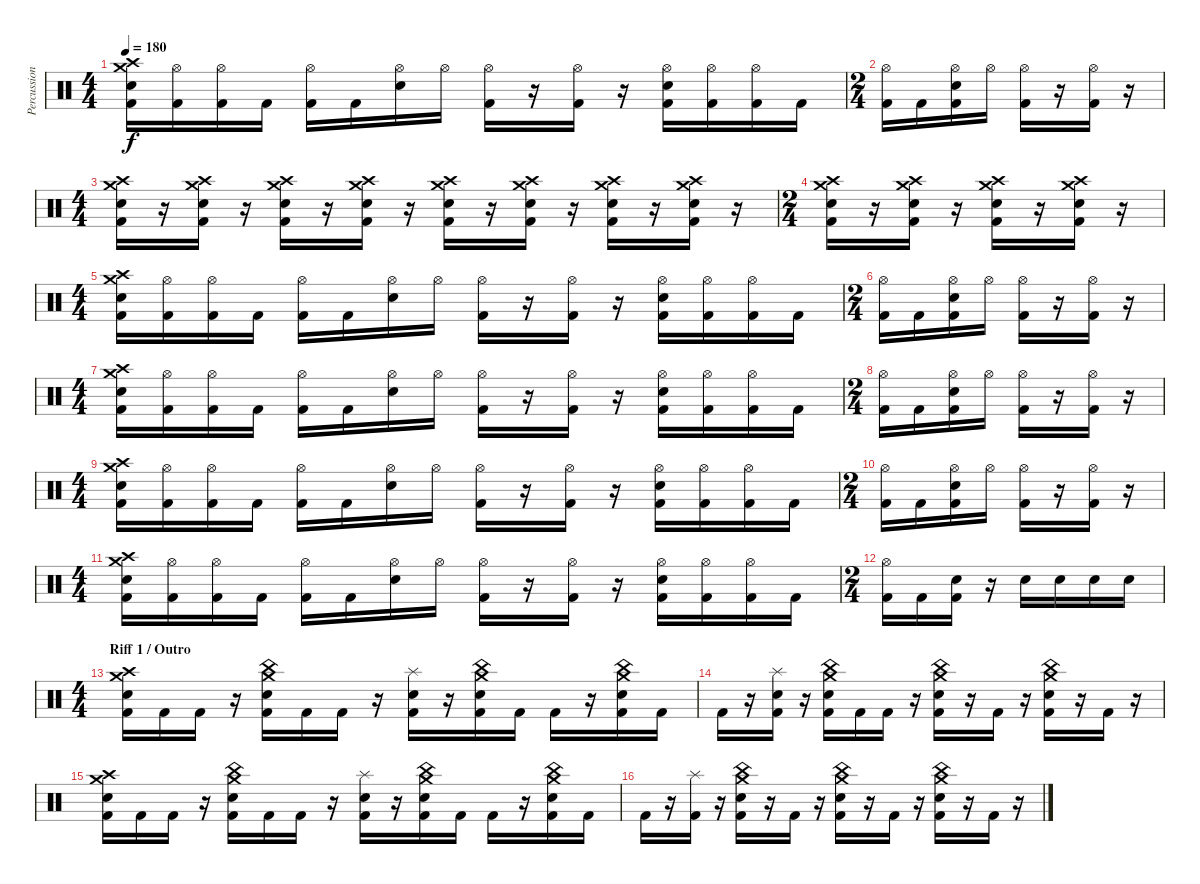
\track ("Percussion" "Percussion") {instrument percussion}
\staff {score}
\articulation defaults
\ts (4 4)
\tempo 180
\clef neutral
\ks c
("Crash medium (hit)" "Crash high (hit)" "Electric Snare (hit)" "Kick (hit) 2").16{dy f} ("Hi-Hat (open)" "Kick (hit) 2").16 ("Hi-Hat (open)" "Kick (hit) 2").16 "Kick (hit) 2".16 ("Hi-Hat (open)" "Kick (hit) 2").16 "Kick (hit) 2".16 ("Hi-Hat (open)" "Electric Snare (hit)").16 "Hi-Hat (open)".16 ("Hi-Hat (open)" "Kick (hit) 2").16 r.16 ("Hi-Hat (open)" "Kick (hit) 2").16 r.16 ("Hi-Hat (open)" "Electric Snare (hit)" "Kick (hit) 2").16 ("Hi-Hat (open)" "Kick (hit) 2").16 ("Hi-Hat (open)" "Kick (hit) 2").16 "Kick (hit) 2".16 |
\ts (2 4)
("Hi-Hat (open)" "Kick (hit) 2").16 "Kick (hit) 2".16 ("Hi-Hat (open)" "Electric Snare (hit)" "Kick (hit) 2").16 "Hi-Hat (open)".16 ("Hi-Hat (open)" "Kick (hit) 2").16 r.16 ("Hi-Hat (open)" "Kick (hit) 2").16 r.16 |
\ts (4 4)
("Crash medium (hit)" "Crash high (hit)" "Electric Snare (hit)" "Kick (hit) 2").16 r.16 ("Crash medium (hit)" "Crash high (hit)" "Electric Snare (hit)" "Kick (hit) 2").16 r.16 ("Crash medium (hit)" "Crash high (hit)" "Electric Snare (hit)" "Kick (hit) 2").16 r.16 ("Crash medium (hit)" "Crash high (hit)" "Electric Snare (hit)" "Kick (hit) 2").16 r.16 ("Crash medium (hit)" "Crash high (hit)" "Electric Snare (hit)" "Kick (hit) 2").16 r.16 ("Crash medium (hit)" "Crash high (hit)" "Electric Snare (hit)" "Kick (hit) 2").16 r.16 ("Crash medium (hit)" "Crash high (hit)" "Electric Snare (hit)" "Kick (hit) 2").16 r.16 ("Crash medium (hit)" "Crash high (hit)" "Electric Snare (hit)" "Kick (hit) 2").16 r.16 |
\ts (2 4)
("Crash medium (hit)" "Crash high (hit)" "Electric Snare (hit)" "Kick (hit) 2").16 r.16 ("Crash medium (hit)" "Crash high (hit)" "Electric Snare (hit)" "Kick (hit) 2").16 r.16 ("Crash medium (hit)" "Crash high (hit)" "Electric Snare (hit)" "Kick (hit) 2").16 r.16 ("Crash medium (hit)" "Crash high (hit)" "Electric Snare (hit)" "Kick (hit) 2").16 r.16 |
\ts (4 4)
("Crash medium (hit)" "Crash high (hit)" "Electric Snare (hit)" "Kick (hit) 2").16 ("Hi-Hat (open)" "Kick (hit) 2").16 ("Hi-Hat (open)" "Kick (hit) 2").16 "Kick (hit) 2".16 ("Hi-Hat (open)" "Kick (hit) 2").16 "Kick (hit) 2".16 ("Hi-Hat (open)" "Electric Snare (hit)").16 "Hi-Hat (open)".16 ("Hi-Hat (open)" "Kick (hit) 2").16 r.16 ("Hi-Hat (open)" "Kick (hit) 2").16 r.16 ("Hi-Hat (open)" "Electric Snare (hit)" "Kick (hit) 2").16 ("Hi-Hat (open)" "Kick (hit) 2").16 ("Hi-Hat (open)" "Kick (hit) 2").16 "Kick (hit) 2".16 |
\ts (2 4)
("Hi-Hat (open)" "Kick (hit) 2").16 "Kick (hit) 2".16 ("Hi-Hat (open)" "Electric Snare (hit)" "Kick (hit) 2").16 "Hi-Hat (open)".16 ("Hi-Hat (open)" "Kick (hit) 2").16 r.16 ("Hi-Hat (open)" "Kick (hit) 2").16 r.16 |
\ts (4 4)
("Crash medium (hit)" "Crash high (hit)" "Electric Snare (hit)" "Kick (hit) 2").16 ("Hi-Hat (open)" "Kick (hit) 2").16 ("Hi-Hat (open)" "Kick (hit) 2").16 "Kick (hit) 2".16 ("Hi-Hat (open)" "Kick (hit) 2").16 "Kick (hit) 2".16 ("Hi-Hat (open)" "Electric Snare (hit)").16 "Hi-Hat (open)".16 ("Hi-Hat (open)" "Kick (hit) 2").16 r.16 ("Hi-Hat (open)" "Kick (hit) 2").16 r.16 ("Hi-Hat (open)" "Electric Snare (hit)" "Kick (hit) 2").16 ("Hi-Hat (open)" "Kick (hit) 2").16 ("Hi-Hat (open)" "Kick (hit) 2").16 "Kick (hit) 2".16 |
\ts (2 4)
("Hi-Hat (open)" "Kick (hit) 2").16 "Kick (hit) 2".16 ("Hi-Hat (open)" "Electric Snare (hit)" "Kick (hit) 2").16 "Hi-Hat (open)".16 ("Hi-Hat (open)" "Kick (hit) 2").16 r.16 ("Hi-Hat (open)" "Kick (hit) 2").16 r.16 |
\ts (4 4)
("Crash medium (hit)" "Crash high (hit)" "Electric Snare (hit)" "Kick (hit) 2").16 ("Hi-Hat (open)" "Kick (hit) 2").16 ("Hi-Hat (open)" "Kick (hit) 2").16 "Kick (hit) 2".16 ("Hi-Hat (open)" "Kick (hit) 2").16 "Kick (hit) 2".16 ("Hi-Hat (open)" "Electric Snare (hit)").16 "Hi-Hat (open)".16 ("Hi-Hat (open)" "Kick (hit) 2").16 r.16 ("Hi-Hat (open)" "Kick (hit) 2").16 r.16 ("Hi-Hat (open)" "Electric Snare (hit)" "Kick (hit) 2").16 ("Hi-Hat (open)" "Kick (hit) 2").16 ("Hi-Hat (open)" "Kick (hit) 2").16 "Kick (hit) 2".16 |
\ts (2 4)
("Hi-Hat (open)" "Kick (hit) 2").16 "Kick (hit) 2".16 ("Hi-Hat (open)" "Electric Snare (hit)" "Kick (hit) 2").16 "Hi-Hat (open)".16 ("Hi-Hat (open)" "Kick (hit) 2").16 r.16 ("Hi-Hat (open)" "Kick (hit) 2").16 r.16 |
\ts (4 4)
("Crash medium (hit)" "Crash high (hit)" "Electric Snare (hit)" "Kick (hit) 2").16 ("Hi-Hat (open)" "Kick (hit) 2").16 ("Hi-Hat (open)" "Kick (hit) 2").16 "Kick (hit) 2".16 ("Hi-Hat (open)" "Kick (hit) 2").16 "Kick (hit) 2".16 ("Hi-Hat (open)" "Electric Snare (hit)").16 "Hi-Hat (open)".16 ("Hi-Hat (open)" "Kick (hit) 2").16 r.16 ("Hi-Hat (open)" "Kick (hit) 2").16 r.16 ("Hi-Hat (open)" "Electric Snare (hit)" "Kick (hit) 2").16 ("Hi-Hat (open)" "Kick (hit) 2").16 ("Hi-Hat (open)" "Kick (hit) 2").16 "Kick (hit) 2".16 |
\ts (2 4)
("Hi-Hat (open)" "Kick (hit) 2").16 "Kick (hit) 2".16 ("Electric Snare (hit)" "Kick (hit) 2").16 r.16 "Electric Snare (hit)".16 "Electric Snare (hit)".16 "Electric Snare (hit)".16 "Electric Snare (hit)".16 |
\ts (4 4)
\section ("" "Riff 1 / Outro")
("Crash medium (hit)" "Crash high (hit)" "Electric Snare (hit)" "Kick (hit) 2").16 "Kick (hit) 2".16 "Kick (hit) 2".16 r.16 ("China (hit)" "Crash medium (hit)" "Electric Snare (hit)" "Kick (hit) 2").16 "Kick (hit) 2".16 "Kick (hit) 2".16 r.16 ("Splash (hit)" "Electric Snare (hit)" "Kick (hit) 2").16 r.16 ("China (hit)" "Crash medium (hit)" "Electric Snare (hit)" "Kick (hit) 2").16 "Kick (hit) 2".16 "Kick (hit) 2".16 r.16 ("China (hit)" "Crash medium (hit)" "Electric Snare (hit)" "Kick (hit) 2").16 "Kick (hit) 2".16 |
"Kick (hit) 2".16 r.16 ("Splash (hit)" "Electric Snare (hit)" "Kick (hit) 2").16 r.16 ("China (hit)" "Crash medium (hit)" "Electric Snare (hit)" "Kick (hit) 2").16 "Kick (hit) 2".16 "Kick (hit) 2".16 r.16 ("China (hit)" "Crash medium (hit)" "Electric Snare (hit)" "Kick (hit) 2").16 r.16 "Kick (hit) 2".16 r.16 ("China (hit)" "Crash medium (hit)" "Electric Snare (hit)" "Kick (hit) 2").16 r.16 "Kick (hit) 2".16 r.16 |
("Crash medium (hit)" "Crash high (hit)" "Electric Snare (hit)" "Kick (hit) 2").16 "Kick (hit) 2".16 "Kick (hit) 2".16 r.16 ("China (hit)" "Crash medium (hit)" "Electric Snare (hit)" "Kick (hit) 2").16 "Kick (hit) 2".16 "Kick (hit) 2".16 r.16 ("Splash (hit)" "Electric Snare (hit)" "Kick (hit) 2").16 r.16 ("China (hit)" "Crash medium (hit)" "Electric Snare (hit)" "Kick (hit) 2").16 "Kick (hit) 2".16 "Kick (hit) 2".16 r.16 ("China (hit)" "Crash medium (hit)" "Electric Snare (hit)" "Kick (hit) 2").16 "Kick (hit) 2".16 |
"Kick (hit) 2".16 r.16 ("Splash (hit)" "Kick (hit) 2").16 r.16 ("China (hit)" "Crash medium (hit)" "Electric Snare (hit)" "Kick (hit) 2").16 r.16 "Kick (hit) 2".16 r.16 ("China (hit)" "Crash medium (hit)" "Electric Snare (hit)" "Kick (hit) 2").16 r.16 "Kick (hit) 2".16 r.16 ("China (hit)" "Crash medium (hit)" "Electric Snare (hit)" "Kick (hit) 2").16 r.16 "Kick (hit) 2".16 r.16
